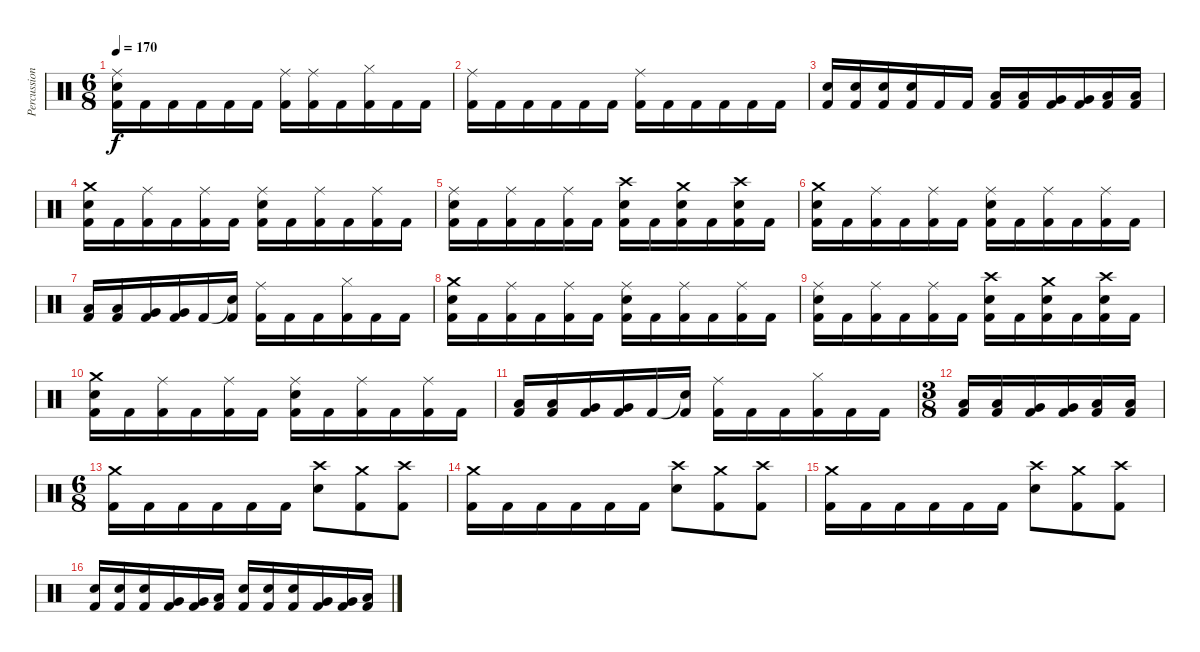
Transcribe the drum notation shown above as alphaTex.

\track ("Percussions" "Percussion") {instrument percussion}
\staff {score}
\articulation defaults
\ts (6 8)
\tempo 170
\clef neutral
\ks c
("Ride (middle)" "Electric Snare (hit)" "Kick (hit) 2").16{dy f} "Kick (hit) 2".16 "Kick (hit) 2".16 "Kick (hit) 2".16 "Kick (hit) 2".16 "Kick (hit) 2".16 ("Ride (middle)" "Kick (hit) 2").16 ("Ride (middle)" "Kick (hit) 2").16 "Kick (hit) 2".16 ("Hi-Hat (closed)" "Kick (hit) 2").16 "Kick (hit) 2".16 "Kick (hit) 2".16 |
("Ride (middle)" "Kick (hit) 2").16 "Kick (hit) 2".16 "Kick (hit) 2".16 "Kick (hit) 2".16 "Kick (hit) 2".16 "Kick (hit) 2".16 ("Ride (middle)" "Kick (hit) 2").16 "Kick (hit) 2".16 "Kick (hit) 2".16 "Kick (hit) 2".16 "Kick (hit) 2".16 "Kick (hit) 2".16 |
("Electric Snare (hit)" "Kick (hit) 2").16 ("Electric Snare (hit)" "Kick (hit) 2").16 ("Electric Snare (hit)" "Kick (hit) 2").16 ("Electric Snare (hit)" "Kick (hit) 2").16 "Kick (hit) 2".16 "Kick (hit) 2".16 ("Low Tom (hit)" "Kick (hit) 2").16 ("Low Tom (hit)" "Kick (hit) 2").16 ("Very Low Tom (hit)" "Kick (hit) 2").16 ("Very Low Tom (hit)" "Kick (hit) 2").16 ("Low Floor Tom (hit)" "Kick (hit) 2").16 ("Low Floor Tom (hit)" "Kick (hit) 2").16 |
("Crash medium (hit)" "Electric Snare (hit)" "Kick (hit) 2").16 "Kick (hit) 2".16 ("Ride (middle)" "Kick (hit) 2").16 "Kick (hit) 2".16 ("Ride (middle)" "Kick (hit) 2").16 "Kick (hit) 2".16 ("Ride (middle)" "Electric Snare (hit)" "Kick (hit) 2").16 "Kick (hit) 2".16 ("Ride (middle)" "Kick (hit) 2").16 "Kick (hit) 2".16 ("Ride (middle)" "Kick (hit) 2").16 "Kick (hit) 2".16 |
("Ride (middle)" "Electric Snare (hit)" "Kick (hit) 2").16 "Kick (hit) 2".16 ("Ride (middle)" "Kick (hit) 2").16 "Kick (hit) 2".16 ("Ride (middle)" "Kick (hit) 2").16 "Kick (hit) 2".16 ("Crash high (hit)" "Electric Snare (hit)" "Kick (hit) 2").16 "Kick (hit) 2".16 ("Crash medium (hit)" "Electric Snare (hit)" "Kick (hit) 2").16 "Kick (hit) 2".16 ("Crash high (hit)" "Electric Snare (hit)" "Kick (hit) 2").16 "Kick (hit) 2".16 |
("Crash medium (hit)" "Electric Snare (hit)" "Kick (hit) 2").16 "Kick (hit) 2".16 ("Ride (middle)" "Kick (hit) 2").16 "Kick (hit) 2".16 ("Ride (middle)" "Kick (hit) 2").16 "Kick (hit) 2".16 ("Ride (middle)" "Electric Snare (hit)" "Kick (hit) 2").16 "Kick (hit) 2".16 ("Ride (middle)" "Kick (hit) 2").16 "Kick (hit) 2".16 ("Ride (middle)" "Kick (hit) 2").16 "Kick (hit) 2".16 |
("Low Tom (hit)" "Kick (hit) 2").16 ("Low Tom (hit)" "Kick (hit) 2").16 ("Very Low Tom (hit)" "Kick (hit) 2").16 ("Very Low Tom (hit)" "Kick (hit) 2").16 "Kick (hit) 2".16 ("Snare (hit)"{t} "Kick (hit) 2").16 ("Ride (middle)" "Kick (hit) 2").16 "Kick (hit) 2".16 "Kick (hit) 2".16 ("Hi-Hat (closed)" "Kick (hit) 2").16 "Kick (hit) 2".16 "Kick (hit) 2".16 |
("Crash medium (hit)" "Electric Snare (hit)" "Kick (hit) 2").16 "Kick (hit) 2".16 ("Ride (middle)" "Kick (hit) 2").16 "Kick (hit) 2".16 ("Ride (middle)" "Kick (hit) 2").16 "Kick (hit) 2".16 ("Ride (middle)" "Electric Snare (hit)" "Kick (hit) 2").16 "Kick (hit) 2".16 ("Ride (middle)" "Kick (hit) 2").16 "Kick (hit) 2".16 ("Ride (middle)" "Kick (hit) 2").16 "Kick (hit) 2".16 |
("Ride (middle)" "Electric Snare (hit)" "Kick (hit) 2").16 "Kick (hit) 2".16 ("Ride (middle)" "Kick (hit) 2").16 "Kick (hit) 2".16 ("Ride (middle)" "Kick (hit) 2").16 "Kick (hit) 2".16 ("Crash high (hit)" "Electric Snare (hit)" "Kick (hit) 2").16 "Kick (hit) 2".16 ("Crash medium (hit)" "Electric Snare (hit)" "Kick (hit) 2").16 "Kick (hit) 2".16 ("Crash high (hit)" "Electric Snare (hit)" "Kick (hit) 2").16 "Kick (hit) 2".16 |
("Crash medium (hit)" "Electric Snare (hit)" "Kick (hit) 2").16 "Kick (hit) 2".16 ("Ride (middle)" "Kick (hit) 2").16 "Kick (hit) 2".16 ("Ride (middle)" "Kick (hit) 2").16 "Kick (hit) 2".16 ("Ride (middle)" "Electric Snare (hit)" "Kick (hit) 2").16 "Kick (hit) 2".16 ("Ride (middle)" "Kick (hit) 2").16 "Kick (hit) 2".16 ("Ride (middle)" "Kick (hit) 2").16 "Kick (hit) 2".16 |
("Low Tom (hit)" "Kick (hit) 2").16 ("Low Tom (hit)" "Kick (hit) 2").16 ("Very Low Tom (hit)" "Kick (hit) 2").16 ("Very Low Tom (hit)" "Kick (hit) 2").16 "Kick (hit) 2".16 ("Snare (hit)"{t} "Kick (hit) 2").16 ("Ride (middle)" "Kick (hit) 2").16 "Kick (hit) 2".16 "Kick (hit) 2".16 ("Hi-Hat (closed)" "Kick (hit) 2").16 "Kick (hit) 2".16 "Kick (hit) 2".16 |
\ts (3 8)
("Low Tom (hit)" "Kick (hit) 2").16 ("Low Tom (hit)" "Kick (hit) 2").16 ("Very Low Tom (hit)" "Kick (hit) 2").16 ("Very Low Tom (hit)" "Kick (hit) 2").16 ("Low Floor Tom (hit)" "Kick (hit) 2").16 ("Low Floor Tom (hit)" "Kick (hit) 2").16 |
\ts (6 8)
("Crash medium (hit)" "Kick (hit) 2").16 "Kick (hit) 2".16 "Kick (hit) 2".16 "Kick (hit) 2".16 "Kick (hit) 2".16 "Kick (hit) 2".16 ("Crash high (hit)" "Electric Snare (hit)").8 ("Crash medium (hit)" "Kick (hit) 2").8 ("Crash high (hit)" "Kick (hit) 2").8 |
("Crash medium (hit)" "Kick (hit) 2").16 "Kick (hit) 2".16 "Kick (hit) 2".16 "Kick (hit) 2".16 "Kick (hit) 2".16 "Kick (hit) 2".16 ("Crash high (hit)" "Electric Snare (hit)").8 ("Crash medium (hit)" "Kick (hit) 2").8 ("Crash high (hit)" "Kick (hit) 2").8 |
("Crash medium (hit)" "Kick (hit) 2").16 "Kick (hit) 2".16 "Kick (hit) 2".16 "Kick (hit) 2".16 "Kick (hit) 2".16 "Kick (hit) 2".16 ("Crash high (hit)" "Electric Snare (hit)").8 ("Crash medium (hit)" "Kick (hit) 2").8 ("Crash high (hit)" "Kick (hit) 2").8 |
("Electric Snare (hit)" "Kick (hit) 2").16 ("Electric Snare (hit)" "Kick (hit) 2").16 ("Electric Snare (hit)" "Kick (hit) 2").16 ("Very Low Tom (hit)" "Kick (hit) 2").16 ("Very Low Tom (hit)" "Kick (hit) 2").16 ("Low Floor Tom (hit)" "Kick (hit) 2").16 ("Electric Snare (hit)" "Kick (hit) 2").16 ("Electric Snare (hit)" "Kick (hit) 2").16 ("Electric Snare (hit)" "Kick (hit) 2").16 ("Very Low Tom (hit)" "Kick (hit) 2").16 ("Very Low Tom (hit)" "Kick (hit) 2").16 ("Low Floor Tom (hit)" "Kick (hit) 2").16
